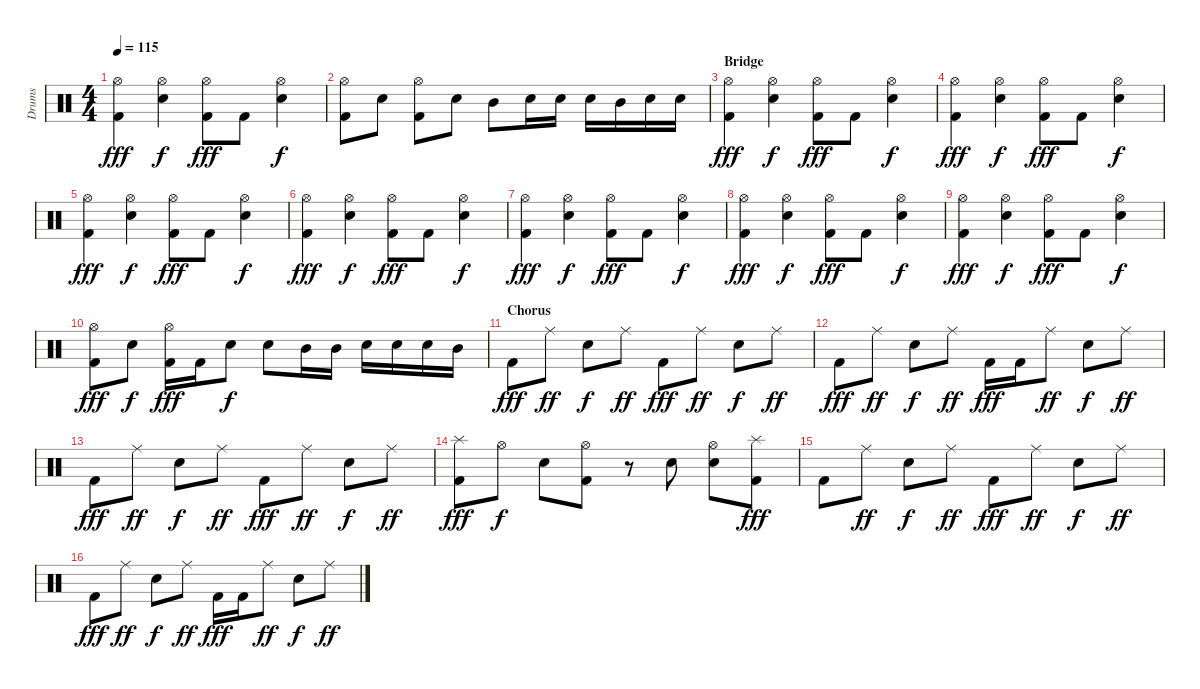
\track ("Drums" "Drums") {instrument percussion}
\staff {score}
\articulation defaults
\ts (4 4)
\tempo 115
\clef neutral
\ks c
("Hi-Hat (open)" "Kick (hit) 2").4{dy fff} ("Hi-Hat (open)" "Snare (hit) 2").4{dy f} ("Hi-Hat (open)" "Kick (hit) 2").8{dy fff} "Kick (hit) 2".8 ("Hi-Hat (open)" "Snare (hit) 2").4{dy f} |
("Hi-Hat (open)" "Kick (hit) 2").8 "Snare (hit) 2".8 ("Hi-Hat (open)" "Kick (hit) 2").8 "Snare (hit) 2".8 "Mid Tom (hit)".8 "Snare (hit) 2".16 "Snare (hit) 2".16 "Snare (hit) 2".16 "Mid Tom (hit)".16 "Snare (hit) 2".16 "Snare (hit) 2".16 |
\section ("" "Bridge")
("Hi-Hat (open)" "Kick (hit) 2").4{dy fff} ("Hi-Hat (open)" "Snare (hit) 2").4{dy f} ("Hi-Hat (open)" "Kick (hit) 2").8{dy fff} "Kick (hit) 2".8 ("Hi-Hat (open)" "Snare (hit) 2").4{dy f} |
("Hi-Hat (open)" "Kick (hit) 2").4{dy fff} ("Hi-Hat (open)" "Snare (hit) 2").4{dy f} ("Hi-Hat (open)" "Kick (hit) 2").8{dy fff} "Kick (hit) 2".8 ("Hi-Hat (open)" "Snare (hit) 2").4{dy f} |
("Hi-Hat (open)" "Kick (hit) 2").4{dy fff} ("Hi-Hat (open)" "Snare (hit) 2").4{dy f} ("Hi-Hat (open)" "Kick (hit) 2").8{dy fff} "Kick (hit) 2".8 ("Hi-Hat (open)" "Snare (hit) 2").4{dy f} |
("Hi-Hat (open)" "Kick (hit) 2").4{dy fff} ("Hi-Hat (open)" "Snare (hit) 2").4{dy f} ("Hi-Hat (open)" "Kick (hit) 2").8{dy fff} "Kick (hit) 2".8 ("Hi-Hat (open)" "Snare (hit) 2").4{dy f} |
("Hi-Hat (open)" "Kick (hit) 2").4{dy fff} ("Hi-Hat (open)" "Snare (hit) 2").4{dy f} ("Hi-Hat (open)" "Kick (hit) 2").8{dy fff} "Kick (hit) 2".8 ("Hi-Hat (open)" "Snare (hit) 2").4{dy f} |
("Hi-Hat (open)" "Kick (hit) 2").4{dy fff} ("Hi-Hat (open)" "Snare (hit) 2").4{dy f} ("Hi-Hat (open)" "Kick (hit) 2").8{dy fff} "Kick (hit) 2".8 ("Hi-Hat (open)" "Snare (hit) 2").4{dy f} |
("Hi-Hat (open)" "Kick (hit) 2").4{dy fff} ("Hi-Hat (open)" "Snare (hit) 2").4{dy f} ("Hi-Hat (open)" "Kick (hit) 2").8{dy fff} "Kick (hit) 2".8 ("Hi-Hat (open)" "Snare (hit) 2").4{dy f} |
("Hi-Hat (open)" "Kick (hit) 2").8{dy fff} "Snare (hit) 2".8{dy f} ("Hi-Hat (open)" "Kick (hit) 2").16{dy fff} "Kick (hit) 2".16 "Snare (hit) 2".8{dy f} "Snare (hit) 2".8 "Mid Tom (hit)".16 "Mid Tom (hit)".16 "Snare (hit) 2".16 "Snare (hit) 2".16 "Snare (hit) 2".16 "Mid Tom (hit)".16 |
\section ("" "Chorus")
"Kick (hit) 2".8{dy fff} "Ride (middle)".8{dy ff} "Snare (hit) 2".8{dy f} "Ride (middle)".8{dy ff} "Kick (hit) 2".8{dy fff} "Ride (middle)".8{dy ff} "Snare (hit) 2".8{dy f} "Ride (middle)".8{dy ff} |
"Kick (hit) 2".8{dy fff} "Ride (middle)".8{dy ff} "Snare (hit) 2".8{dy f} "Ride (middle)".8{dy ff} "Kick (hit) 2".16{dy fff} "Kick (hit) 2".16 "Ride (middle)".8{dy ff} "Snare (hit) 2".8{dy f} "Ride (middle)".8{dy ff} |
"Kick (hit) 2".8{dy fff} "Ride (middle)".8{dy ff} "Snare (hit) 2".8{dy f} "Ride (middle)".8{dy ff} "Kick (hit) 2".8{dy fff} "Ride (middle)".8{dy ff} "Snare (hit) 2".8{dy f} "Ride (middle)".8{dy ff} |
("Splash (hit)" "Kick (hit) 2").8{dy fff} "Hi-Hat (open)".8{dy f} "Snare (hit) 2".8 ("Hi-Hat (open)" "Kick (hit) 2").8 r.8 "Snare (hit) 2".8 ("Hi-Hat (open)" "Snare (hit) 2").8 ("Splash (hit)" "Kick (hit) 2").8{dy fff} |
"Kick (hit) 2".8 "Ride (middle)".8{dy ff} "Snare (hit) 2".8{dy f} "Ride (middle)".8{dy ff} "Kick (hit) 2".8{dy fff} "Ride (middle)".8{dy ff} "Snare (hit) 2".8{dy f} "Ride (middle)".8{dy ff} |
"Kick (hit) 2".8{dy fff} "Ride (middle)".8{dy ff} "Snare (hit) 2".8{dy f} "Ride (middle)".8{dy ff} "Kick (hit) 2".16{dy fff} "Kick (hit) 2".16 "Ride (middle)".8{dy ff} "Snare (hit) 2".8{dy f} "Ride (middle)".8{dy ff}
